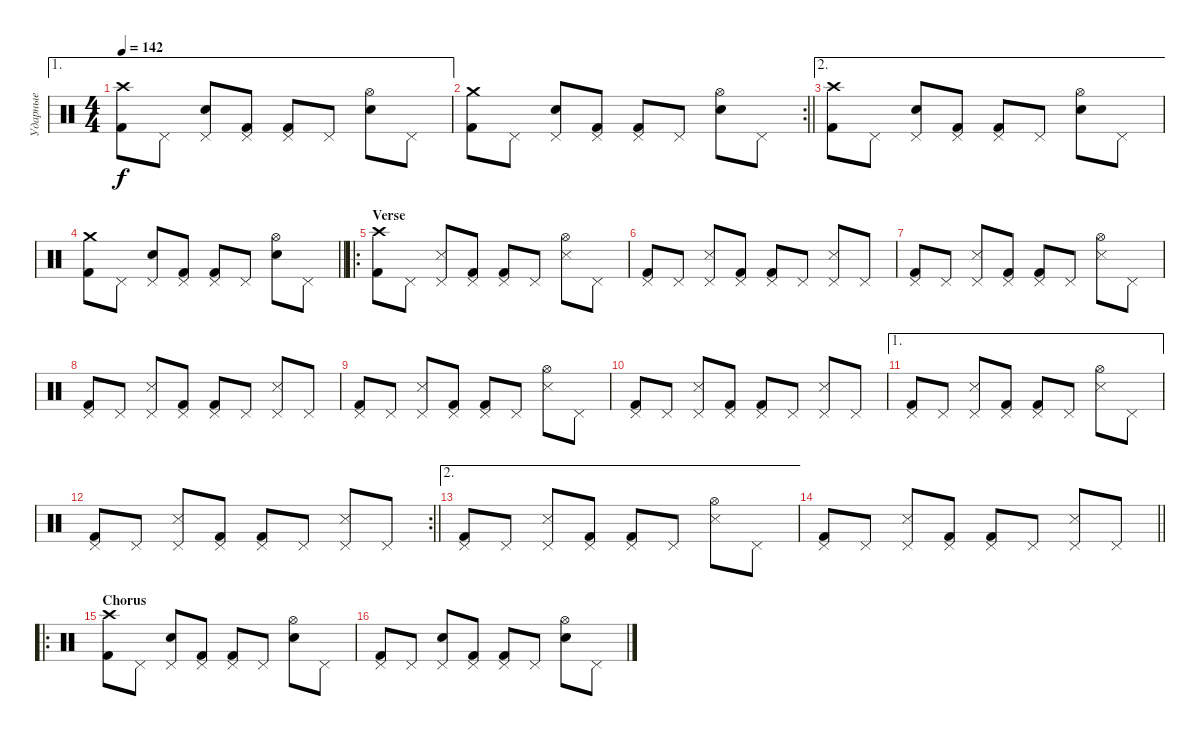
\track ("Ударные" "Ударные") {instrument percussion}
\staff {score}
\articulation defaults
\ae 1
\ts (4 4)
\tempo 142
\clef neutral
\ks c
("Crash high (hit)" "Kick (hit) 2").8{dy f} "Pedal Hi-Hat (hit)".8 ("Pedal Hi-Hat (hit)" "Snare (hit) 2").8 ("Pedal Hi-Hat (hit)" "Kick (hit) 2").8 ("Pedal Hi-Hat (hit)" "Kick (hit) 2").8 "Pedal Hi-Hat (hit)".8 ("Hi-Hat (open)" "Snare (hit) 2").8 "Pedal Hi-Hat (hit)".8 |
\rc 2
\barLineRight lightlight
("Crash medium (hit)" "Kick (hit) 2").8 "Pedal Hi-Hat (hit)".8 ("Pedal Hi-Hat (hit)" "Snare (hit) 2").8 ("Pedal Hi-Hat (hit)" "Kick (hit) 2").8 ("Pedal Hi-Hat (hit)" "Kick (hit) 2").8 "Pedal Hi-Hat (hit)".8 ("Hi-Hat (open)" "Snare (hit) 2").8 "Pedal Hi-Hat (hit)".8 |
\ae 2
("Crash high (hit)" "Kick (hit) 2").8 "Pedal Hi-Hat (hit)".8 ("Pedal Hi-Hat (hit)" "Snare (hit) 2").8 ("Pedal Hi-Hat (hit)" "Kick (hit) 2").8 ("Pedal Hi-Hat (hit)" "Kick (hit) 2").8 "Pedal Hi-Hat (hit)".8 ("Hi-Hat (open)" "Snare (hit) 2").8 "Pedal Hi-Hat (hit)".8 |
\barLineRight lightlight
("Crash medium (hit)" "Kick (hit) 2").8 "Pedal Hi-Hat (hit)".8 ("Pedal Hi-Hat (hit)" "Snare (hit) 2").8 ("Pedal Hi-Hat (hit)" "Kick (hit) 2").8 ("Pedal Hi-Hat (hit)" "Kick (hit) 2").8 "Pedal Hi-Hat (hit)".8 ("Hi-Hat (open)" "Snare (hit) 2").8 "Pedal Hi-Hat (hit)".8 |
\ro
\section ("" "Verse")
("Crash high (hit)" "Kick (hit) 2").8 "Pedal Hi-Hat (hit)".8 ("Pedal Hi-Hat (hit)" "Snare (side stick) 3").8 ("Pedal Hi-Hat (hit)" "Kick (hit) 2").8 ("Pedal Hi-Hat (hit)" "Kick (hit) 2").8 "Pedal Hi-Hat (hit)".8 ("Hi-Hat (open)" "Snare (side stick) 3").8 "Pedal Hi-Hat (hit)".8 |
("Pedal Hi-Hat (hit)" "Kick (hit) 2").8 "Pedal Hi-Hat (hit)".8 ("Pedal Hi-Hat (hit)" "Snare (side stick) 3").8 ("Pedal Hi-Hat (hit)" "Kick (hit) 2").8 ("Pedal Hi-Hat (hit)" "Kick (hit) 2").8 "Pedal Hi-Hat (hit)".8 ("Pedal Hi-Hat (hit)" "Snare (side stick) 3").8 "Pedal Hi-Hat (hit)".8 |
("Pedal Hi-Hat (hit)" "Kick (hit) 2").8 "Pedal Hi-Hat (hit)".8 ("Pedal Hi-Hat (hit)" "Snare (side stick) 3").8 ("Pedal Hi-Hat (hit)" "Kick (hit) 2").8 ("Pedal Hi-Hat (hit)" "Kick (hit) 2").8 "Pedal Hi-Hat (hit)".8 ("Hi-Hat (open)" "Snare (side stick) 3").8 "Pedal Hi-Hat (hit)".8 |
("Pedal Hi-Hat (hit)" "Kick (hit) 2").8 "Pedal Hi-Hat (hit)".8 ("Pedal Hi-Hat (hit)" "Snare (side stick) 3").8 ("Pedal Hi-Hat (hit)" "Kick (hit) 2").8 ("Pedal Hi-Hat (hit)" "Kick (hit) 2").8 "Pedal Hi-Hat (hit)".8 ("Pedal Hi-Hat (hit)" "Snare (side stick) 3").8 "Pedal Hi-Hat (hit)".8 |
("Pedal Hi-Hat (hit)" "Kick (hit) 2").8 "Pedal Hi-Hat (hit)".8 ("Pedal Hi-Hat (hit)" "Snare (side stick) 3").8 ("Pedal Hi-Hat (hit)" "Kick (hit) 2").8 ("Pedal Hi-Hat (hit)" "Kick (hit) 2").8 "Pedal Hi-Hat (hit)".8 ("Hi-Hat (open)" "Snare (side stick) 3").8 "Pedal Hi-Hat (hit)".8 |
("Pedal Hi-Hat (hit)" "Kick (hit) 2").8 "Pedal Hi-Hat (hit)".8 ("Pedal Hi-Hat (hit)" "Snare (side stick) 3").8 ("Pedal Hi-Hat (hit)" "Kick (hit) 2").8 ("Pedal Hi-Hat (hit)" "Kick (hit) 2").8 "Pedal Hi-Hat (hit)".8 ("Pedal Hi-Hat (hit)" "Snare (side stick) 3").8 "Pedal Hi-Hat (hit)".8 |
\ae 1
("Pedal Hi-Hat (hit)" "Kick (hit) 2").8 "Pedal Hi-Hat (hit)".8 ("Pedal Hi-Hat (hit)" "Snare (side stick) 3").8 ("Pedal Hi-Hat (hit)" "Kick (hit) 2").8 ("Pedal Hi-Hat (hit)" "Kick (hit) 2").8 "Pedal Hi-Hat (hit)".8 ("Hi-Hat (open)" "Snare (side stick) 3").8 "Pedal Hi-Hat (hit)".8 |
\rc 2
\barLineRight lightlight
("Pedal Hi-Hat (hit)" "Kick (hit) 2").8 "Pedal Hi-Hat (hit)".8 ("Pedal Hi-Hat (hit)" "Snare (side stick) 3").8 ("Pedal Hi-Hat (hit)" "Kick (hit) 2").8 ("Pedal Hi-Hat (hit)" "Kick (hit) 2").8 "Pedal Hi-Hat (hit)".8 ("Pedal Hi-Hat (hit)" "Snare (side stick) 3").8 "Pedal Hi-Hat (hit)".8 |
\ae 2
("Pedal Hi-Hat (hit)" "Kick (hit) 2").8 "Pedal Hi-Hat (hit)".8 ("Pedal Hi-Hat (hit)" "Snare (side stick) 3").8 ("Pedal Hi-Hat (hit)" "Kick (hit) 2").8 ("Pedal Hi-Hat (hit)" "Kick (hit) 2").8 "Pedal Hi-Hat (hit)".8 ("Hi-Hat (open)" "Snare (side stick) 3").8 "Pedal Hi-Hat (hit)".8 |
\barLineRight lightlight
("Pedal Hi-Hat (hit)" "Kick (hit) 2").8 "Pedal Hi-Hat (hit)".8 ("Pedal Hi-Hat (hit)" "Snare (side stick) 3").8 ("Pedal Hi-Hat (hit)" "Kick (hit) 2").8 ("Pedal Hi-Hat (hit)" "Kick (hit) 2").8 "Pedal Hi-Hat (hit)".8 ("Pedal Hi-Hat (hit)" "Snare (side stick) 3").8 "Pedal Hi-Hat (hit)".8 |
\ro
\section ("" "Chorus")
("Crash high (hit)" "Kick (hit) 2").8 "Pedal Hi-Hat (hit)".8 ("Pedal Hi-Hat (hit)" "Snare (hit) 2").8 ("Pedal Hi-Hat (hit)" "Kick (hit) 2").8 ("Pedal Hi-Hat (hit)" "Kick (hit) 2").8 "Pedal Hi-Hat (hit)".8 ("Hi-Hat (open)" "Snare (hit) 2").8 "Pedal Hi-Hat (hit)".8 |
("Pedal Hi-Hat (hit)" "Kick (hit) 2").8 "Pedal Hi-Hat (hit)".8 ("Pedal Hi-Hat (hit)" "Snare (hit) 2").8 ("Pedal Hi-Hat (hit)" "Kick (hit) 2").8 ("Pedal Hi-Hat (hit)" "Kick (hit) 2").8 "Pedal Hi-Hat (hit)".8 ("Hi-Hat (open)" "Snare (hit) 2").8 "Pedal Hi-Hat (hit)".8
